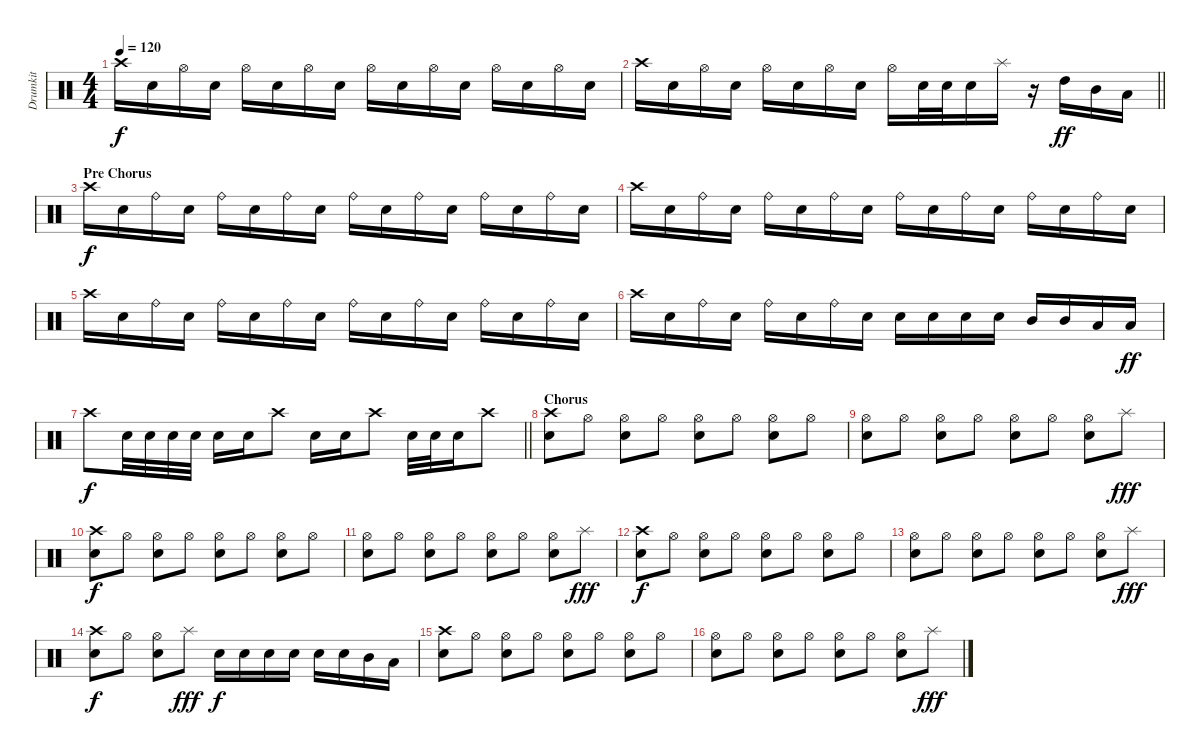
\track ("Drumkit" "Drumkit") {instrument percussion}
\staff {score}
\articulation defaults
\ts (4 4)
\tempo 120
\clef neutral
\ks c "Crash high (hit)".16{dy f} "Electric Snare (hit)".16 "Hi-Hat (open)".16 "Electric Snare (hit)".16 "Hi-Hat (open)".16 "Electric Snare (hit)".16 "Hi-Hat (open)".16 "Electric Snare (hit)".16 "Hi-Hat (open)".16 "Electric Snare (hit)".16 "Hi-Hat (open)".16 "Electric Snare (hit)".16 "Hi-Hat (open)".16 "Electric Snare (hit)".16 "Hi-Hat (open)".16 "Electric Snare (hit)".16
|
\barLineRight lightlight "Crash high (hit)".16 "Electric Snare (hit)".16 "Hi-Hat (open)".16 "Electric Snare (hit)".16 "Hi-Hat (open)".16 "Electric Snare (hit)".16 "Hi-Hat (open)".16 "Electric Snare (hit)".16 "Hi-Hat (open)".16 "Electric Snare (hit)".32 "Electric Snare (hit)".32 "Electric Snare (hit)".16 "Splash (hit)".16
r.16 "High Tom (hit)".16{dy ff} "Mid Tom (hit)".16 "Low Tom (hit)".16 |
\section ("" "Pre Chorus")
"Crash high (hit)".16{dy f} "Electric Snare (hit)".16 "Ride (bell)".16 "Electric Snare (hit)".16 "Ride (bell)".16 "Electric Snare (hit)".16 "Ride (bell)".16 "Electric Snare (hit)".16 "Ride (bell)".16 "Electric Snare (hit)".16 "Ride (bell)".16 "Electric Snare (hit)".16 "Ride (bell)".16 "Electric Snare (hit)".16 "Ride (bell)".16 "Electric Snare (hit)".16 |
"Crash high (hit)".16 "Electric Snare (hit)".16 "Ride (bell)".16 "Electric Snare (hit)".16 "Ride (bell)".16 "Electric Snare (hit)".16 "Ride (bell)".16 "Electric Snare (hit)".16 "Ride (bell)".16 "Electric Snare (hit)".16 "Ride (bell)".16 "Electric Snare (hit)".16 "Ride (bell)".16 "Electric Snare (hit)".16 "Ride (bell)".16 "Electric Snare (hit)".16 |
"Crash high (hit)".16 "Electric Snare (hit)".16 "Ride (bell)".16 "Electric Snare (hit)".16 "Ride (bell)".16 "Electric Snare (hit)".16 "Ride (bell)".16 "Electric Snare (hit)".16 "Ride (bell)".16 "Electric Snare (hit)".16 "Ride (bell)".16 "Electric Snare (hit)".16 "Ride (bell)".16 "Electric Snare (hit)".16 "Ride (bell)".16 "Electric Snare (hit)".16 |
"Crash high (hit)".16 "Electric Snare (hit)".16 "Ride (bell)".16 "Electric Snare (hit)".16 "Ride (bell)".16 "Electric Snare (hit)".16 "Ride (bell)".16 "Electric Snare (hit)".16 "Electric Snare (hit)".16 "Electric Snare (hit)".16 "Electric Snare (hit)".16 "Electric Snare (hit)".16 "Mid Tom (hit)".16 "Mid Tom (hit)".16 "Low Tom (hit)".16 "Low Tom (hit)".16{dy ff} |
\barLineRight lightlight "Crash high (hit)".8{dy f} "Electric Snare (hit)".32 "Electric Snare (hit)".32 "Electric Snare (hit)".32 "Electric Snare (hit)".32 "Electric Snare (hit)".16 "Electric Snare (hit)".16 "Crash high (hit)".8 "Electric Snare (hit)".16 "Electric Snare (hit)".16 "Crash high (hit)".8 "Electric Snare (hit)".32 "Electric Snare (hit)".32 "Electric Snare (hit)".16 "Crash high (hit)".8
|
\section ("" "Chorus")
("Crash high (hit)" "Electric Snare (hit)").8 "Hi-Hat (open)".8 ("Hi-Hat (open)" "Electric Snare (hit)").8 "Hi-Hat (open)".8 ("Hi-Hat (open)" "Electric Snare (hit)").8 "Hi-Hat (open)".8 ("Hi-Hat (open)" "Electric Snare (hit)").8 "Hi-Hat (open)".8 |
("Hi-Hat (open)" "Electric Snare (hit)").8 "Hi-Hat (open)".8 ("Hi-Hat (open)" "Electric Snare (hit)").8 "Hi-Hat (open)".8 ("Hi-Hat (open)" "Electric Snare (hit)").8 "Hi-Hat (open)".8 ("Hi-Hat (open)" "Electric Snare (hit)").8 "Splash (hit)".8{dy fff} |
("Crash high (hit)" "Electric Snare (hit)").8{dy f} "Hi-Hat (open)".8 ("Hi-Hat (open)" "Electric Snare (hit)").8 "Hi-Hat (open)".8 ("Hi-Hat (open)" "Electric Snare (hit)").8 "Hi-Hat (open)".8 ("Hi-Hat (open)" "Electric Snare (hit)").8 "Hi-Hat (open)".8 |
("Hi-Hat (open)" "Electric Snare (hit)").8 "Hi-Hat (open)".8 ("Hi-Hat (open)" "Electric Snare (hit)").8 "Hi-Hat (open)".8 ("Hi-Hat (open)" "Electric Snare (hit)").8 "Hi-Hat (open)".8 ("Hi-Hat (open)" "Electric Snare (hit)").8 "Splash (hit)".8{dy fff} |
("Crash high (hit)" "Electric Snare (hit)").8{dy f} "Hi-Hat (open)".8 ("Hi-Hat (open)" "Electric Snare (hit)").8 "Hi-Hat (open)".8 ("Hi-Hat (open)" "Electric Snare (hit)").8 "Hi-Hat (open)".8 ("Hi-Hat (open)" "Electric Snare (hit)").8 "Hi-Hat (open)".8 |
("Hi-Hat (open)" "Electric Snare (hit)").8 "Hi-Hat (open)".8 ("Hi-Hat (open)" "Electric Snare (hit)").8 "Hi-Hat (open)".8 ("Hi-Hat (open)" "Electric Snare (hit)").8 "Hi-Hat (open)".8 ("Hi-Hat (open)" "Electric Snare (hit)").8 "Splash (hit)".8{dy fff} |
("Crash high (hit)" "Electric Snare (hit)").8{dy f} "Hi-Hat (open)".8 ("Hi-Hat (open)" "Electric Snare (hit)").8 "Splash (hit)".8{dy fff} "Electric Snare (hit)".16{dy f} "Electric Snare (hit)".16 "Electric Snare (hit)".16 "Electric Snare (hit)".16 "Electric Snare (hit)".16 "Electric Snare (hit)".16 "Mid Tom (hit)".16 "Low Tom (hit)".16 |
("Crash high (hit)" "Electric Snare (hit)").8 "Hi-Hat (open)".8 ("Hi-Hat (open)" "Electric Snare (hit)").8 "Hi-Hat (open)".8 ("Hi-Hat (open)" "Electric Snare (hit)").8 "Hi-Hat (open)".8 ("Hi-Hat (open)" "Electric Snare (hit)").8 "Hi-Hat (open)".8 |
("Hi-Hat (open)" "Electric Snare (hit)").8 "Hi-Hat (open)".8 ("Hi-Hat (open)" "Electric Snare (hit)").8 "Hi-Hat (open)".8 ("Hi-Hat (open)" "Electric Snare (hit)").8 "Hi-Hat (open)".8 ("Hi-Hat (open)" "Electric Snare (hit)").8 "Splash (hit)".8{dy fff}
